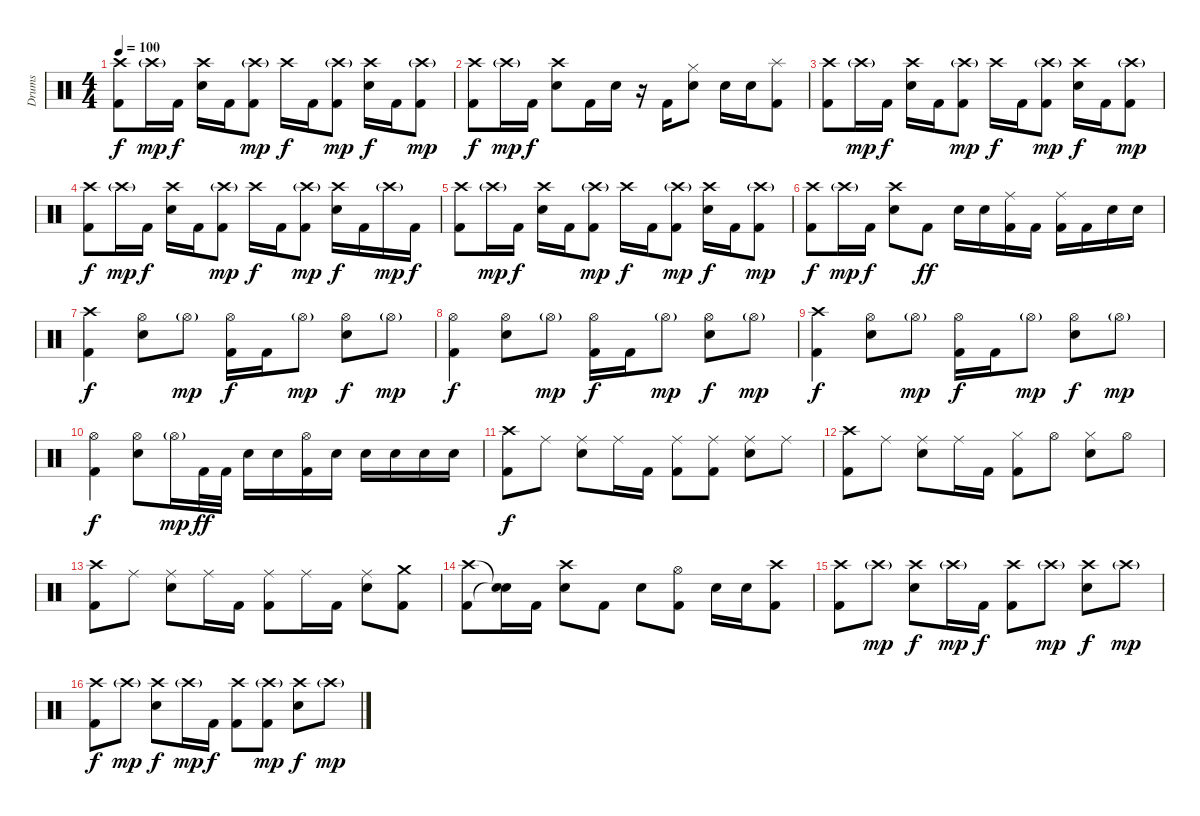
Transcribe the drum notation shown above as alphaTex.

\track ("Drums" "Drums") {instrument percussion}
\staff {score}
\articulation defaults
\ts (4 4)
\tempo 100
\clef neutral
\ks c
("Crash high (hit)" "Kick (hit) 2").8{dy f} "Crash high (hit)"{g}.16{dy mp} "Kick (hit) 2".16{dy f} ("Crash high (hit)" "Snare (hit) 2").16 "Kick (hit) 2".16 ("Crash high (hit)"{g} "Kick (hit) 2").8{dy mp} "Crash high (hit)".16{dy f} "Kick (hit) 2".16 ("Crash high (hit)"{g} "Kick (hit) 2").8{dy mp} ("Crash high (hit)" "Snare (hit) 2").16{dy f} "Kick (hit) 2".16 ("Crash high (hit)"{g} "Kick (hit) 2").8{dy mp} |
("Crash high (hit)" "Kick (hit) 2").8{dy f} "Crash high (hit)"{g}.16{dy mp} "Kick (hit) 2".16{dy f} ("Crash high (hit)" "Snare (hit) 2").8 "Kick (hit) 2".16 "Snare (hit) 2".16 r.16 "Kick (hit) 2".16 ("Hi-Hat (closed)" "Snare (hit) 2").8 "Snare (hit) 2".16 "Snare (hit) 2".16 ("Splash (hit)" "Kick (hit) 2").8 |
("Crash high (hit)" "Kick (hit) 2").8 "Crash high (hit)"{g}.16{dy mp} "Kick (hit) 2".16{dy f} ("Crash high (hit)" "Snare (hit) 2").16 "Kick (hit) 2".16 ("Crash high (hit)"{g} "Kick (hit) 2").8{dy mp} "Crash high (hit)".16{dy f} "Kick (hit) 2".16 ("Crash high (hit)"{g} "Kick (hit) 2").8{dy mp} ("Crash high (hit)" "Snare (hit) 2").16{dy f} "Kick (hit) 2".16 ("Crash high (hit)"{g} "Kick (hit) 2").8{dy mp} |
("Crash high (hit)" "Kick (hit) 2").8{dy f} "Crash high (hit)"{g}.16{dy mp} "Kick (hit) 2".16{dy f} ("Crash high (hit)" "Snare (hit) 2").16 "Kick (hit) 2".16 ("Crash high (hit)"{g} "Kick (hit) 2").8{dy mp} "Crash high (hit)".16{dy f} "Kick (hit) 2".16 ("Crash high (hit)"{g} "Kick (hit) 2").8{dy mp} ("Crash high (hit)" "Snare (hit) 2").16{dy f} "Kick (hit) 2".16 "Crash high (hit)"{g}.16{dy mp} "Kick (hit) 2".16{dy f} |
("Crash high (hit)" "Kick (hit) 2").8 "Crash high (hit)"{g}.16{dy mp} "Kick (hit) 2".16{dy f} ("Crash high (hit)" "Snare (hit) 2").16 "Kick (hit) 2".16 ("Crash high (hit)"{g} "Kick (hit) 2").8{dy mp} "Crash high (hit)".16{dy f} "Kick (hit) 2".16 ("Crash high (hit)"{g} "Kick (hit) 2").8{dy mp} ("Crash high (hit)" "Snare (hit) 2").16{dy f} "Kick (hit) 2".16 ("Crash high (hit)"{g} "Kick (hit) 2").8{dy mp} |
("Crash high (hit)" "Kick (hit) 2").8{dy f} "Crash high (hit)"{g}.16{dy mp} "Kick (hit) 2".16{dy f} ("Crash high (hit)" "Snare (hit) 2").8 "Kick (hit) 2".8{dy ff} "Snare (hit) 2".16 "Snare (hit) 2".16 ("Ride (middle)" "Kick (hit) 2").16 "Kick (hit) 2".16 ("Ride (middle)" "Kick (hit) 2").16 "Kick (hit) 2".16 "Snare (hit) 2".16 "Snare (hit) 2".16 |
("Crash high (hit)" "Kick (hit) 2").4{dy f} ("Hi-Hat (open)" "Snare (hit) 2").8 "Hi-Hat (open)"{g}.8{dy mp} ("Hi-Hat (open)" "Kick (hit) 2").16{dy f} "Kick (hit) 2".16 "Hi-Hat (open)"{g}.8{dy mp} ("Hi-Hat (open)" "Snare (hit) 2").8{dy f} "Hi-Hat (open)"{g}.8{dy mp} |
("Hi-Hat (open)" "Kick (hit) 2").4{dy f} ("Hi-Hat (open)" "Snare (hit) 2").8 "Hi-Hat (open)"{g}.8{dy mp} ("Hi-Hat (open)" "Kick (hit) 2").16{dy f} "Kick (hit) 2".16 "Hi-Hat (open)"{g}.8{dy mp} ("Hi-Hat (open)" "Snare (hit) 2").8{dy f} "Hi-Hat (open)"{g}.8{dy mp} |
("Crash high (hit)" "Kick (hit) 2").4{dy f} ("Hi-Hat (open)" "Snare (hit) 2").8 "Hi-Hat (open)"{g}.8{dy mp} ("Hi-Hat (open)" "Kick (hit) 2").16{dy f} "Kick (hit) 2".16 "Hi-Hat (open)"{g}.8{dy mp} ("Hi-Hat (open)" "Snare (hit) 2").8{dy f} "Hi-Hat (open)"{g}.8{dy mp} |
("Hi-Hat (open)" "Kick (hit) 2").4{dy f} ("Hi-Hat (open)" "Snare (hit) 2").8 "Hi-Hat (open)"{g}.16{dy mp} "Kick (hit) 2".32{dy ff} "Kick (hit) 2".32 "Snare (hit) 2".16 "Snare (hit) 2".16 ("Hi-Hat (open)" "Kick (hit) 2").16 "Snare (hit) 2".16 "Snare (hit) 2".16 "Snare (hit) 2".16 "Snare (hit) 2".16 "Snare (hit) 2".16 |
("Crash high (hit)" "Kick (hit) 2").8{dy f} "Ride (middle)".8 ("Ride (middle)" "Snare (hit) 2").8 "Ride (middle)".16 "Kick (hit) 2".16 ("Ride (middle)" "Kick (hit) 2").8 ("Ride (middle)" "Kick (hit) 2").8 ("Ride (middle)" "Snare (hit) 2").8 "Ride (middle)".8 |
("Crash high (hit)" "Kick (hit) 2").8 "Ride (middle)".8 ("Ride (middle)" "Snare (hit) 2").8 "Ride (middle)".16 "Kick (hit) 2".16 ("Hi-Hat (closed)" "Kick (hit) 2").8 "Hi-Hat (open)".8 ("Hi-Hat (closed)" "Snare (hit) 2").8 "Hi-Hat (open)".8 |
("Crash high (hit)" "Kick (hit) 2").8 "Ride (middle)".8 ("Ride (middle)" "Snare (hit) 2").8 "Ride (middle)".16 "Kick (hit) 2".16 ("Ride (middle)" "Kick (hit) 2").8 "Ride (middle)".16 "Kick (hit) 2".16 ("Ride (middle)" "Snare (hit) 2").8 ("Crash medium (hit)" "Kick (hit) 2").8 |
("Crash high (hit)" "Kick (hit) 2").8 ("Snare (hit)"{t} "Snare (hit)"{t}).16 "Kick (hit) 2".16 ("Crash high (hit)" "Snare (hit) 2").8 "Kick (hit) 2".8 "Snare (hit) 2".8 ("Hi-Hat (open)" "Kick (hit) 2").8 "Snare (hit) 2".16 "Snare (hit) 2".16 ("Crash high (hit)" "Kick (hit) 2").8 |
("Crash high (hit)" "Kick (hit) 2").8 "Crash high (hit)"{g}.8{dy mp} ("Crash high (hit)" "Snare (hit) 2").8{dy f} "Crash high (hit)"{g}.16{dy mp} "Kick (hit) 2".16{dy f} ("Crash high (hit)" "Kick (hit) 2").8 "Crash high (hit)"{g}.8{dy mp} ("Crash high (hit)" "Snare (hit) 2").8{dy f} "Crash high (hit)"{g}.8{dy mp} |
("Crash high (hit)" "Kick (hit) 2").8{dy f} "Crash high (hit)"{g}.8{dy mp} ("Crash high (hit)" "Snare (hit) 2").8{dy f} "Crash high (hit)"{g}.16{dy mp} "Kick (hit) 2".16{dy f} ("Crash high (hit)" "Kick (hit) 2").8 ("Crash high (hit)"{g} "Kick (hit) 2").8{dy mp} ("Crash high (hit)" "Snare (hit) 2").8{dy f} "Crash high (hit)"{g}.8{dy mp}
